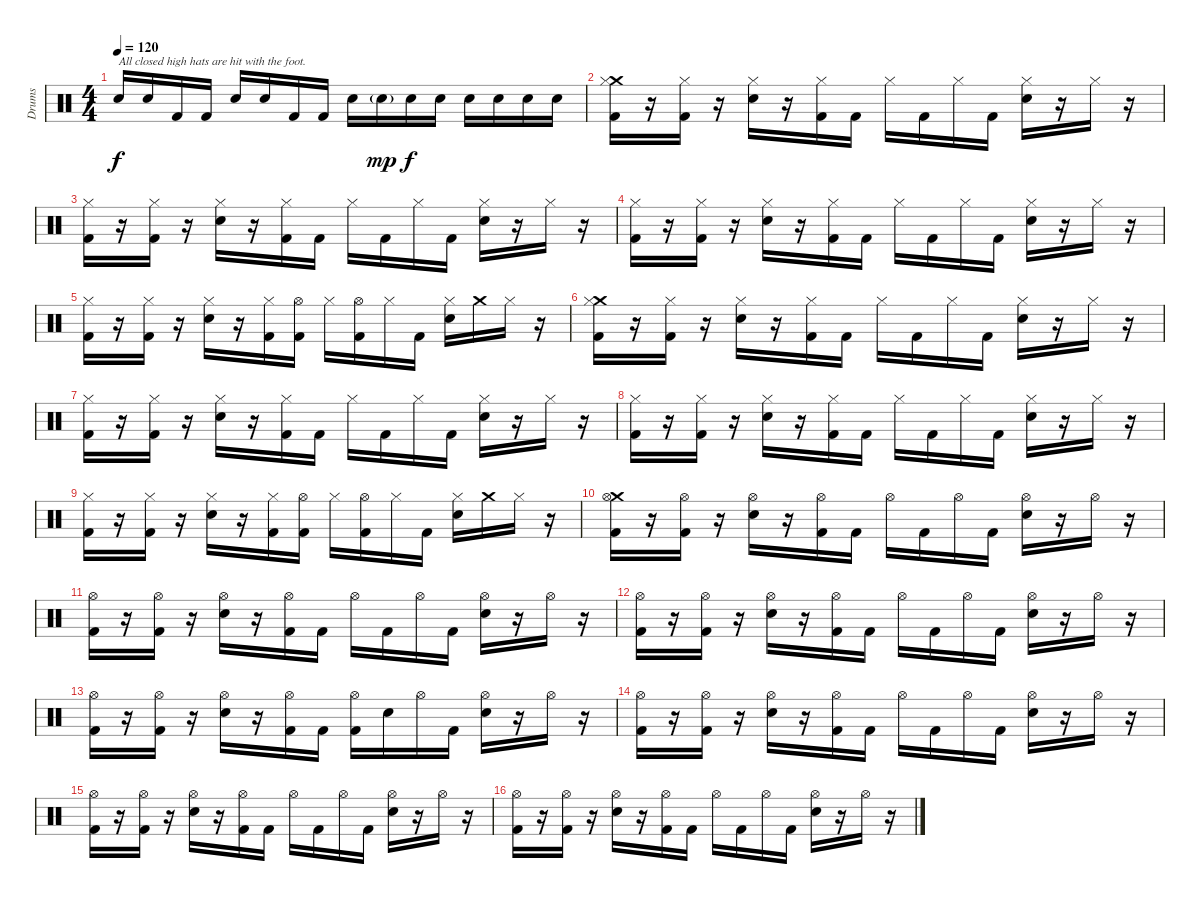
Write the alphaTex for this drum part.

\track ("Drums" "Drums") {instrument percussion}
\staff {score}
\articulation defaults
\ts (4 4)
\tempo 120
\clef neutral
\ks c "Snare (hit) 2".16{txt "All closed high hats are hit with the foot." dy f} "Snare (hit) 2".16 "Kick (hit) 2".16 "Kick (hit) 2".16 "Snare (hit) 2".16 "Snare (hit) 2".16 "Kick (hit) 2".16 "Kick (hit) 2".16 "Snare (hit) 2".16 "Snare (hit) 2"{g}.16{dy mp} "Snare (hit) 2".16{dy f} "Snare (hit) 2".16 "Snare (hit) 2".16 "Snare (hit) 2".16 "Snare (hit) 2".16 "Snare (hit) 2".16
|
("Crash medium (hit)" "Hi-Hat (closed)" "Kick (hit) 2").16 r.16 ("Hi-Hat (closed)" "Kick (hit) 2").16 r.16 ("Hi-Hat (closed)" "Snare (hit) 2").16 r.16 ("Hi-Hat (closed)" "Kick (hit) 2").16 "Kick (hit) 2".16 "Hi-Hat (closed)".16 "Kick (hit) 2".16 "Hi-Hat (closed)".16 "Kick (hit) 2".16 ("Hi-Hat (closed)" "Snare (hit) 2").16 r.16 "Hi-Hat (closed)".16 r.16 |
("Hi-Hat (closed)" "Kick (hit) 2").16 r.16 ("Hi-Hat (closed)" "Kick (hit) 2").16 r.16 ("Hi-Hat (closed)" "Snare (hit) 2").16 r.16 ("Hi-Hat (closed)" "Kick (hit) 2").16 "Kick (hit) 2".16 "Hi-Hat (closed)".16 "Kick (hit) 2".16 "Hi-Hat (closed)".16 "Kick (hit) 2".16 ("Hi-Hat (closed)" "Snare (hit) 2").16 r.16 "Hi-Hat (closed)".16 r.16 |
("Hi-Hat (closed)" "Kick (hit) 2").16 r.16 ("Hi-Hat (closed)" "Kick (hit) 2").16 r.16 ("Hi-Hat (closed)" "Snare (hit) 2").16 r.16 ("Hi-Hat (closed)" "Kick (hit) 2").16 "Kick (hit) 2".16 "Hi-Hat (closed)".16 "Kick (hit) 2".16 "Hi-Hat (closed)".16 "Kick (hit) 2".16 ("Hi-Hat (closed)" "Snare (hit) 2").16 r.16 "Hi-Hat (closed)".16 r.16 |
("Hi-Hat (closed)" "Kick (hit) 2").16 r.16 ("Hi-Hat (closed)" "Kick (hit) 2").16 r.16 ("Hi-Hat (closed)" "Snare (hit) 2").16 r.16 ("Hi-Hat (closed)" "Kick (hit) 2").16 ("Hi-Hat (open)" "Kick (hit) 2").16 "Hi-Hat (closed)".16 ("Hi-Hat (open)" "Kick (hit) 2").16 "Hi-Hat (closed)".16 "Kick (hit) 2".16 ("Hi-Hat (closed)" "Snare (hit) 2").16 "Crash medium (hit)".16 "Hi-Hat (closed)".16 r.16 |
("Crash medium (hit)" "Hi-Hat (closed)" "Kick (hit) 2").16 r.16 ("Hi-Hat (closed)" "Kick (hit) 2").16 r.16 ("Hi-Hat (closed)" "Snare (hit) 2").16 r.16 ("Hi-Hat (closed)" "Kick (hit) 2").16 "Kick (hit) 2".16 "Hi-Hat (closed)".16 "Kick (hit) 2".16 "Hi-Hat (closed)".16 "Kick (hit) 2".16 ("Hi-Hat (closed)" "Snare (hit) 2").16 r.16 "Hi-Hat (closed)".16 r.16 |
("Hi-Hat (closed)" "Kick (hit) 2").16 r.16 ("Hi-Hat (closed)" "Kick (hit) 2").16 r.16 ("Hi-Hat (closed)" "Snare (hit) 2").16 r.16 ("Hi-Hat (closed)" "Kick (hit) 2").16 "Kick (hit) 2".16 "Hi-Hat (closed)".16 "Kick (hit) 2".16 "Hi-Hat (closed)".16 "Kick (hit) 2".16 ("Hi-Hat (closed)" "Snare (hit) 2").16 r.16 "Hi-Hat (closed)".16 r.16 |
("Hi-Hat (closed)" "Kick (hit) 2").16 r.16 ("Hi-Hat (closed)" "Kick (hit) 2").16 r.16 ("Hi-Hat (closed)" "Snare (hit) 2").16 r.16 ("Hi-Hat (closed)" "Kick (hit) 2").16 "Kick (hit) 2".16 "Hi-Hat (closed)".16 "Kick (hit) 2".16 "Hi-Hat (closed)".16 "Kick (hit) 2".16 ("Hi-Hat (closed)" "Snare (hit) 2").16 r.16 "Hi-Hat (closed)".16 r.16 |
("Hi-Hat (closed)" "Kick (hit) 2").16 r.16 ("Hi-Hat (closed)" "Kick (hit) 2").16 r.16 ("Hi-Hat (closed)" "Snare (hit) 2").16 r.16 ("Hi-Hat (closed)" "Kick (hit) 2").16 ("Hi-Hat (open)" "Kick (hit) 2").16 "Hi-Hat (closed)".16 ("Hi-Hat (open)" "Kick (hit) 2").16 "Hi-Hat (closed)".16 "Kick (hit) 2".16 ("Hi-Hat (closed)" "Snare (hit) 2").16 "Crash medium (hit)".16 "Hi-Hat (closed)".16 r.16 |
("Crash medium (hit)" "Hi-Hat (open)" "Kick (hit) 2").16 r.16 ("Hi-Hat (open)" "Kick (hit) 2").16 r.16 ("Hi-Hat (open)" "Snare (hit) 2").16 r.16 ("Hi-Hat (open)" "Kick (hit) 2").16 "Kick (hit) 2".16 "Hi-Hat (open)".16 "Kick (hit) 2".16 "Hi-Hat (open)".16 "Kick (hit) 2".16 ("Hi-Hat (open)" "Snare (hit) 2").16 r.16 "Hi-Hat (open)".16 r.16 |
("Hi-Hat (open)" "Kick (hit) 2").16 r.16 ("Hi-Hat (open)" "Kick (hit) 2").16 r.16 ("Hi-Hat (open)" "Snare (hit) 2").16 r.16 ("Hi-Hat (open)" "Kick (hit) 2").16 "Kick (hit) 2".16 "Hi-Hat (open)".16 "Kick (hit) 2".16 "Hi-Hat (open)".16 "Kick (hit) 2".16 ("Hi-Hat (open)" "Snare (hit) 2").16 r.16 "Hi-Hat (open)".16 r.16 |
("Hi-Hat (open)" "Kick (hit) 2").16 r.16 ("Hi-Hat (open)" "Kick (hit) 2").16 r.16 ("Hi-Hat (open)" "Snare (hit) 2").16 r.16 ("Hi-Hat (open)" "Kick (hit) 2").16 "Kick (hit) 2".16 "Hi-Hat (open)".16 "Kick (hit) 2".16 "Hi-Hat (open)".16 "Kick (hit) 2".16 ("Hi-Hat (open)" "Snare (hit) 2").16 r.16 "Hi-Hat (open)".16 r.16 |
("Hi-Hat (open)" "Kick (hit) 2").16 r.16 ("Hi-Hat (open)" "Kick (hit) 2").16 r.16 ("Hi-Hat (open)" "Snare (hit) 2").16 r.16 ("Hi-Hat (open)" "Kick (hit) 2").16 "Kick (hit) 2".16 ("Hi-Hat (open)" "Kick (hit) 2").16 "Snare (hit) 2".16 "Hi-Hat (open)".16 "Kick (hit) 2".16 ("Hi-Hat (open)" "Snare (hit) 2").16 r.16 "Hi-Hat (open)".16 r.16 |
("Hi-Hat (open)" "Kick (hit) 2").16 r.16 ("Hi-Hat (open)" "Kick (hit) 2").16 r.16 ("Hi-Hat (open)" "Snare (hit) 2").16 r.16 ("Hi-Hat (open)" "Kick (hit) 2").16 "Kick (hit) 2".16 "Hi-Hat (open)".16 "Kick (hit) 2".16 "Hi-Hat (open)".16 "Kick (hit) 2".16 ("Hi-Hat (open)" "Snare (hit) 2").16 r.16 "Hi-Hat (open)".16 r.16 |
("Hi-Hat (open)" "Kick (hit) 2").16 r.16 ("Hi-Hat (open)" "Kick (hit) 2").16 r.16 ("Hi-Hat (open)" "Snare (hit) 2").16 r.16 ("Hi-Hat (open)" "Kick (hit) 2").16 "Kick (hit) 2".16 "Hi-Hat (open)".16 "Kick (hit) 2".16 "Hi-Hat (open)".16 "Kick (hit) 2".16 ("Hi-Hat (open)" "Snare (hit) 2").16 r.16 "Hi-Hat (open)".16 r.16 |
("Hi-Hat (open)" "Kick (hit) 2").16 r.16 ("Hi-Hat (open)" "Kick (hit) 2").16 r.16 ("Hi-Hat (open)" "Snare (hit) 2").16 r.16 ("Hi-Hat (open)" "Kick (hit) 2").16 "Kick (hit) 2".16 "Hi-Hat (open)".16 "Kick (hit) 2".16 "Hi-Hat (open)".16 "Kick (hit) 2".16 ("Hi-Hat (open)" "Snare (hit) 2").16 r.16 "Hi-Hat (open)".16 r.16
